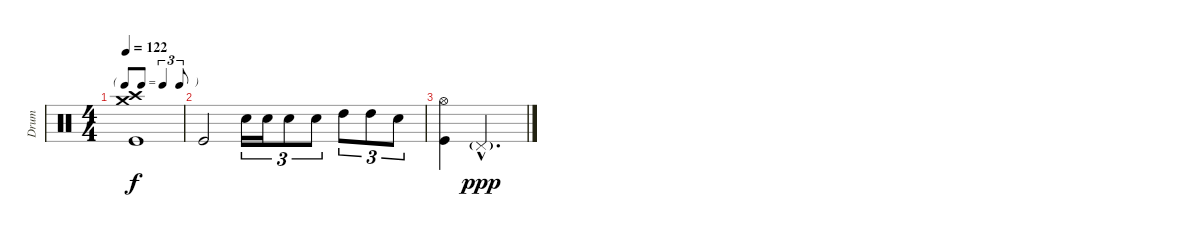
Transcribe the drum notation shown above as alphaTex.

\track ("Drum" "Drum") {instrument percussion}
\staff {score}
\articulation defaults
\ts (4 4)
\tf triplet8th
\tempo 122
\clef neutral
\ks c
("Crash high (hit)" "Crash medium (hit)" "Kick (hit)").1{dy f} |
"Kick (hit)".2 "Electric Snare (hit)".16{tu (3 2)} "Electric Snare (hit)".16{tu (3 2)} "Electric Snare (hit)".8{tu (3 2)} "Electric Snare (hit)".8{tu (3 2)} "High Tom (hit)".8{tu (3 2)} "High Tom (hit)".8{tu (3 2)} "Electric Snare (hit)".8{tu (3 2)} |
("Hi-Hat (open)" "Kick (hit)").4 "Pedal Hi-Hat (hit)"{g hac}.2{d dy ppp}
